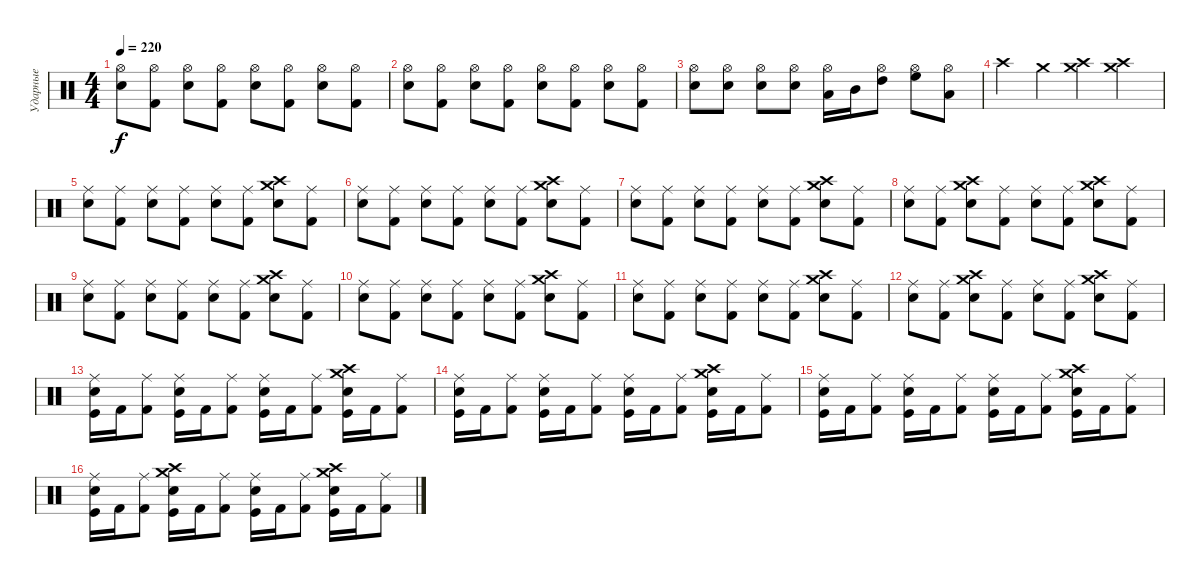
\track ("Ударные" "Ударные") {instrument percussion}
\staff {score}
\articulation defaults
\ts (4 4)
\tempo 220
\clef neutral
\ks c
("Hi-Hat (open)" "Snare (hit) 2").8{dy f} ("Hi-Hat (open)" "Kick (hit) 2").8 ("Hi-Hat (open)" "Snare (hit) 2").8 ("Hi-Hat (open)" "Kick (hit) 2").8 ("Hi-Hat (open)" "Snare (hit) 2").8 ("Hi-Hat (open)" "Kick (hit) 2").8 ("Hi-Hat (open)" "Snare (hit) 2").8 ("Hi-Hat (open)" "Kick (hit) 2").8 |
("Hi-Hat (open)" "Snare (hit) 2").8 ("Hi-Hat (open)" "Kick (hit) 2").8 ("Hi-Hat (open)" "Snare (hit) 2").8 ("Hi-Hat (open)" "Kick (hit) 2").8 ("Hi-Hat (open)" "Snare (hit) 2").8 ("Hi-Hat (open)" "Kick (hit) 2").8 ("Hi-Hat (open)" "Snare (hit) 2").8 ("Hi-Hat (open)" "Kick (hit) 2").8 |
("Hi-Hat (open)" "Snare (hit) 2").8 ("Hi-Hat (open)" "Snare (hit) 2").8 ("Hi-Hat (open)" "Snare (hit) 2").8 ("Hi-Hat (open)" "Snare (hit) 2").8 ("Hi-Hat (open)" "Low Floor Tom (hit)").16 "Mid Tom (hit)".16 ("Hi-Hat (open)" "High Tom (hit)").8 ("Hi-Hat (open)" "High Floor Tom (hit)").8 ("Hi-Hat (open)" "Low Floor Tom (hit)").8 |
"Crash high (hit)".4 "Crash medium (hit)".4 ("Crash high (hit)" "Crash medium (hit)").4 ("Crash high (hit)" "Crash medium (hit)").4 |
("Ride (middle)" "Snare (hit) 2").8 ("Ride (middle)" "Kick (hit) 2").8 ("Ride (middle)" "Snare (hit) 2").8 ("Ride (middle)" "Kick (hit) 2").8 ("Ride (middle)" "Snare (hit) 2").8 ("Ride (middle)" "Kick (hit) 2").8 ("Crash high (hit)" "Crash medium (hit)" "Snare (hit) 2").8 ("Ride (middle)" "Kick (hit) 2").8 |
("Ride (middle)" "Snare (hit) 2").8 ("Ride (middle)" "Kick (hit) 2").8 ("Ride (middle)" "Snare (hit) 2").8 ("Ride (middle)" "Kick (hit) 2").8 ("Ride (middle)" "Snare (hit) 2").8 ("Ride (middle)" "Kick (hit) 2").8 ("Crash high (hit)" "Crash medium (hit)" "Snare (hit) 2").8 ("Ride (middle)" "Kick (hit) 2").8 |
("Ride (middle)" "Snare (hit) 2").8 ("Ride (middle)" "Kick (hit) 2").8 ("Ride (middle)" "Snare (hit) 2").8 ("Ride (middle)" "Kick (hit) 2").8 ("Ride (middle)" "Snare (hit) 2").8 ("Ride (middle)" "Kick (hit) 2").8 ("Crash high (hit)" "Crash medium (hit)" "Snare (hit) 2").8 ("Ride (middle)" "Kick (hit) 2").8 |
("Ride (middle)" "Snare (hit) 2").8 ("Ride (middle)" "Kick (hit) 2").8 ("Crash high (hit)" "Snare (hit) 2" "Crash medium (hit)").8 ("Ride (middle)" "Kick (hit) 2").8 ("Ride (middle)" "Snare (hit) 2").8 ("Ride (middle)" "Kick (hit) 2").8 ("Crash high (hit)" "Crash medium (hit)" "Snare (hit) 2").8 ("Ride (middle)" "Kick (hit) 2").8 |
("Ride (middle)" "Snare (hit) 2").8 ("Ride (middle)" "Kick (hit) 2").8 ("Ride (middle)" "Snare (hit) 2").8 ("Ride (middle)" "Kick (hit) 2").8 ("Ride (middle)" "Snare (hit) 2").8 ("Ride (middle)" "Kick (hit) 2").8 ("Crash high (hit)" "Crash medium (hit)" "Snare (hit) 2").8 ("Ride (middle)" "Kick (hit) 2").8 |
("Ride (middle)" "Snare (hit) 2").8 ("Ride (middle)" "Kick (hit) 2").8 ("Ride (middle)" "Snare (hit) 2").8 ("Ride (middle)" "Kick (hit) 2").8 ("Ride (middle)" "Snare (hit) 2").8 ("Ride (middle)" "Kick (hit) 2").8 ("Crash high (hit)" "Crash medium (hit)" "Snare (hit) 2").8 ("Ride (middle)" "Kick (hit) 2").8 |
("Ride (middle)" "Snare (hit) 2").8 ("Ride (middle)" "Kick (hit) 2").8 ("Ride (middle)" "Snare (hit) 2").8 ("Ride (middle)" "Kick (hit) 2").8 ("Ride (middle)" "Snare (hit) 2").8 ("Ride (middle)" "Kick (hit) 2").8 ("Crash high (hit)" "Crash medium (hit)" "Snare (hit) 2").8 ("Ride (middle)" "Kick (hit) 2").8 |
("Ride (middle)" "Snare (hit) 2").8 ("Ride (middle)" "Kick (hit) 2").8 ("Crash high (hit)" "Snare (hit) 2" "Crash medium (hit)").8 ("Ride (middle)" "Kick (hit) 2").8 ("Ride (middle)" "Snare (hit) 2").8 ("Ride (middle)" "Kick (hit) 2").8 ("Crash high (hit)" "Crash medium (hit)" "Snare (hit) 2").8 ("Ride (middle)" "Kick (hit) 2").8 |
("Ride (middle)" "Snare (hit) 2" "Kick (hit)").16 "Kick (hit) 2".16 ("Ride (middle)" "Kick (hit) 2").8 ("Ride (middle)" "Snare (hit) 2" "Kick (hit)").16 "Kick (hit) 2".16 ("Ride (middle)" "Kick (hit) 2").8 ("Ride (middle)" "Snare (hit) 2" "Kick (hit)").16 "Kick (hit) 2".16 ("Ride (middle)" "Kick (hit) 2").8 ("Crash high (hit)" "Crash medium (hit)" "Snare (hit) 2" "Kick (hit)").16 "Kick (hit) 2".16 ("Ride (middle)" "Kick (hit) 2").8 |
("Ride (middle)" "Snare (hit) 2" "Kick (hit)").16 "Kick (hit) 2".16 ("Ride (middle)" "Kick (hit) 2").8 ("Ride (middle)" "Snare (hit) 2" "Kick (hit)").16 "Kick (hit) 2".16 ("Ride (middle)" "Kick (hit) 2").8 ("Ride (middle)" "Snare (hit) 2" "Kick (hit)").16 "Kick (hit) 2".16 ("Ride (middle)" "Kick (hit) 2").8 ("Crash high (hit)" "Crash medium (hit)" "Snare (hit) 2" "Kick (hit)").16 "Kick (hit) 2".16 ("Ride (middle)" "Kick (hit) 2").8 |
("Ride (middle)" "Snare (hit) 2" "Kick (hit)").16 "Kick (hit) 2".16 ("Ride (middle)" "Kick (hit) 2").8 ("Ride (middle)" "Snare (hit) 2" "Kick (hit)").16 "Kick (hit) 2".16 ("Ride (middle)" "Kick (hit) 2").8 ("Ride (middle)" "Snare (hit) 2" "Kick (hit)").16 "Kick (hit) 2".16 ("Ride (middle)" "Kick (hit) 2").8 ("Crash high (hit)" "Crash medium (hit)" "Snare (hit) 2" "Kick (hit)").16 "Kick (hit) 2".16 ("Ride (middle)" "Kick (hit) 2").8 |
("Ride (middle)" "Snare (hit) 2" "Kick (hit)").16 "Kick (hit) 2".16 ("Ride (middle)" "Kick (hit) 2").8 ("Crash high (hit)" "Snare (hit) 2" "Crash medium (hit)" "Kick (hit)").16 "Kick (hit) 2".16 ("Ride (middle)" "Kick (hit) 2").8 ("Ride (middle)" "Snare (hit) 2" "Kick (hit)").16 "Kick (hit) 2".16 ("Ride (middle)" "Kick (hit) 2").8 ("Crash high (hit)" "Crash medium (hit)" "Snare (hit) 2" "Kick (hit)").16 "Kick (hit) 2".16 ("Ride (middle)" "Kick (hit) 2").8
